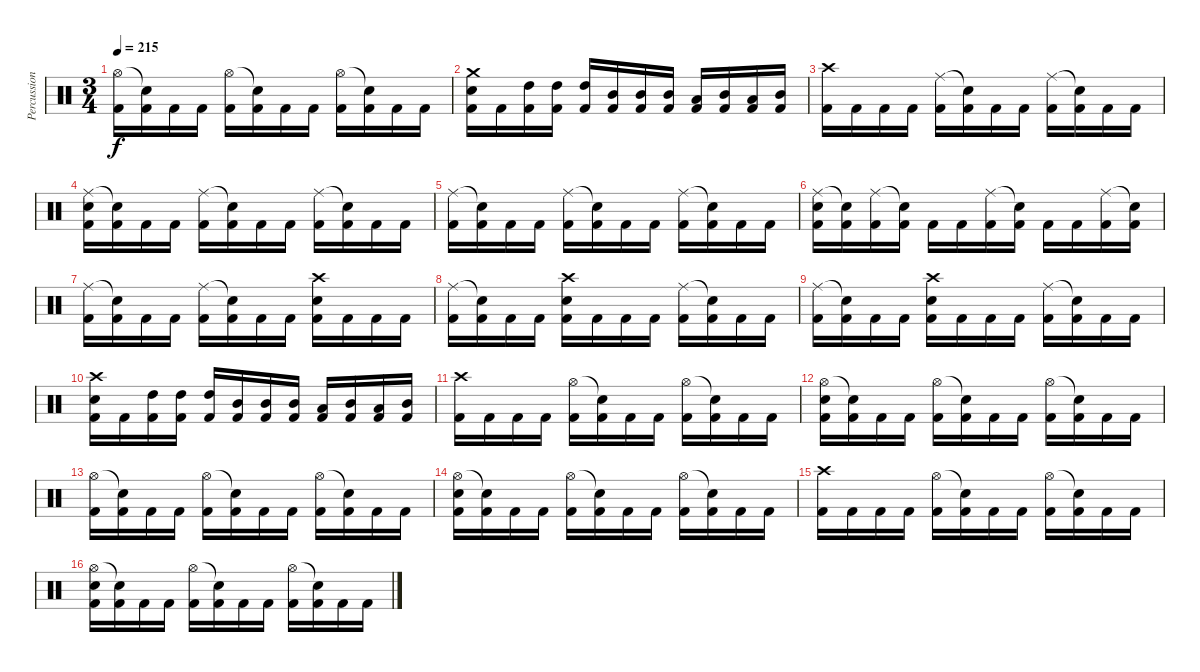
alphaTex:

\track ("Percussion" "Percussion") {instrument percussion}
\staff {score}
\articulation defaults
\ts (3 4)
\tempo 215
\clef neutral
\ks c
("Hi-Hat (open)" "Kick (hit) 2").16{dy f} ("Snare (hit)"{t} "Kick (hit) 2").16 "Kick (hit) 2".16 "Kick (hit) 2".16 ("Hi-Hat (open)" "Kick (hit) 2").16 ("Snare (hit)"{t} "Kick (hit) 2").16 "Kick (hit) 2".16 "Kick (hit) 2".16 ("Hi-Hat (open)" "Kick (hit) 2").16 ("Snare (hit)"{t} "Kick (hit) 2").16 "Kick (hit) 2".16 "Kick (hit) 2".16 |
("Crash medium (hit)" "Snare (hit) 2" "Kick (hit) 2").16 "Kick (hit) 2".16 ("High Tom (hit)" "Kick (hit) 2").16 ("High Tom (hit)" "Kick (hit) 2").16 ("High Tom (hit)" "Kick (hit) 2").16 ("Mid Tom (hit)" "Kick (hit) 2").16 ("Mid Tom (hit)" "Kick (hit) 2").16 ("Mid Tom (hit)" "Kick (hit) 2").16 ("Low Tom (hit)" "Kick (hit) 2").16 ("Mid Tom (hit)" "Kick (hit) 2").16 ("Low Tom (hit)" "Kick (hit) 2").16 ("Mid Tom (hit)" "Kick (hit) 2").16 |
("Crash high (hit)" "Kick (hit) 2").16 "Kick (hit) 2".16 "Kick (hit) 2".16 "Kick (hit) 2".16 ("Ride (middle)" "Kick (hit) 2").16 ("Snare (hit)"{t} "Kick (hit) 2").16 "Kick (hit) 2".16 "Kick (hit) 2".16 ("Ride (middle)" "Kick (hit) 2").16 ("Snare (hit)"{t} "Kick (hit) 2").16 "Kick (hit) 2".16 "Kick (hit) 2".16 |
("Ride (middle)" "Snare (hit) 2" "Kick (hit) 2").16 ("Snare (hit)"{t} "Kick (hit) 2").16 "Kick (hit) 2".16 "Kick (hit) 2".16 ("Ride (middle)" "Kick (hit) 2").16 ("Snare (hit)"{t} "Kick (hit) 2").16 "Kick (hit) 2".16 "Kick (hit) 2".16 ("Ride (middle)" "Kick (hit) 2").16 ("Snare (hit)"{t} "Kick (hit) 2").16 "Kick (hit) 2".16 "Kick (hit) 2".16 |
("Ride (middle)" "Kick (hit) 2").16 ("Snare (hit)"{t} "Kick (hit) 2").16 "Kick (hit) 2".16 "Kick (hit) 2".16 ("Ride (middle)" "Kick (hit) 2").16 ("Snare (hit)"{t} "Kick (hit) 2").16 "Kick (hit) 2".16 "Kick (hit) 2".16 ("Ride (middle)" "Kick (hit) 2").16 ("Snare (hit)"{t} "Kick (hit) 2").16 "Kick (hit) 2".16 "Kick (hit) 2".16 |
("Ride (middle)" "Snare (hit) 2" "Kick (hit) 2").16 ("Snare (hit)"{t} "Kick (hit) 2").16 ("Ride (middle)" "Kick (hit) 2").16 ("Snare (hit)"{t} "Kick (hit) 2").16 "Kick (hit) 2".16 "Kick (hit) 2".16 ("Ride (middle)" "Kick (hit) 2").16 ("Snare (hit)"{t} "Kick (hit) 2").16 "Kick (hit) 2".16 "Kick (hit) 2".16 ("Ride (middle)" "Kick (hit) 2").16 ("Snare (hit)"{t} "Kick (hit) 2").16 |
("Ride (middle)" "Kick (hit) 2").16 ("Snare (hit)"{t} "Kick (hit) 2").16 "Kick (hit) 2".16 "Kick (hit) 2".16 ("Ride (middle)" "Kick (hit) 2").16 ("Snare (hit)"{t} "Kick (hit) 2").16 "Kick (hit) 2".16 "Kick (hit) 2".16 ("Crash high (hit)" "Snare (hit) 2" "Kick (hit) 2").16 "Kick (hit) 2".16 "Kick (hit) 2".16 "Kick (hit) 2".16 |
("Ride (middle)" "Kick (hit) 2").16 ("Snare (hit)"{t} "Kick (hit) 2").16 "Kick (hit) 2".16 "Kick (hit) 2".16 ("Crash high (hit)" "Snare (hit) 2" "Kick (hit) 2").16 "Kick (hit) 2".16 "Kick (hit) 2".16 "Kick (hit) 2".16 ("Ride (middle)" "Kick (hit) 2").16 ("Snare (hit)"{t} "Kick (hit) 2").16 "Kick (hit) 2".16 "Kick (hit) 2".16 |
("Ride (middle)" "Kick (hit) 2").16 ("Snare (hit)"{t} "Kick (hit) 2").16 "Kick (hit) 2".16 "Kick (hit) 2".16 ("Crash high (hit)" "Snare (hit) 2" "Kick (hit) 2").16 "Kick (hit) 2".16 "Kick (hit) 2".16 "Kick (hit) 2".16 ("Ride (middle)" "Kick (hit) 2").16 ("Snare (hit)"{t} "Kick (hit) 2").16 "Kick (hit) 2".16 "Kick (hit) 2".16 |
("Crash high (hit)" "Snare (hit) 2" "Kick (hit) 2").16 "Kick (hit) 2".16 ("High Tom (hit)" "Kick (hit) 2").16 ("High Tom (hit)" "Kick (hit) 2").16 ("High Tom (hit)" "Kick (hit) 2").16 ("Mid Tom (hit)" "Kick (hit) 2").16 ("Mid Tom (hit)" "Kick (hit) 2").16 ("Mid Tom (hit)" "Kick (hit) 2").16 ("Low Tom (hit)" "Kick (hit) 2").16 ("Mid Tom (hit)" "Kick (hit) 2").16 ("Low Tom (hit)" "Kick (hit) 2").16 ("Mid Tom (hit)" "Kick (hit) 2").16 |
("Crash high (hit)" "Kick (hit) 2").16 "Kick (hit) 2".16 "Kick (hit) 2".16 "Kick (hit) 2".16 ("Hi-Hat (open)" "Kick (hit) 2").16 ("Snare (hit)"{t} "Kick (hit) 2").16 "Kick (hit) 2".16 "Kick (hit) 2".16 ("Hi-Hat (open)" "Kick (hit) 2").16 ("Snare (hit)"{t} "Kick (hit) 2").16 "Kick (hit) 2".16 "Kick (hit) 2".16 |
("Hi-Hat (open)" "Snare (hit) 2" "Kick (hit) 2").16 ("Snare (hit)"{t} "Kick (hit) 2").16 "Kick (hit) 2".16 "Kick (hit) 2".16 ("Hi-Hat (open)" "Kick (hit) 2").16 ("Snare (hit)"{t} "Kick (hit) 2").16 "Kick (hit) 2".16 "Kick (hit) 2".16 ("Hi-Hat (open)" "Kick (hit) 2").16 ("Snare (hit)"{t} "Kick (hit) 2").16 "Kick (hit) 2".16 "Kick (hit) 2".16 |
("Hi-Hat (open)" "Kick (hit) 2").16 ("Snare (hit)"{t} "Kick (hit) 2").16 "Kick (hit) 2".16 "Kick (hit) 2".16 ("Hi-Hat (open)" "Kick (hit) 2").16 ("Snare (hit)"{t} "Kick (hit) 2").16 "Kick (hit) 2".16 "Kick (hit) 2".16 ("Hi-Hat (open)" "Kick (hit) 2").16 ("Snare (hit)"{t} "Kick (hit) 2").16 "Kick (hit) 2".16 "Kick (hit) 2".16 |
("Hi-Hat (open)" "Snare (hit) 2" "Kick (hit) 2").16 ("Snare (hit)"{t} "Kick (hit) 2").16 "Kick (hit) 2".16 "Kick (hit) 2".16 ("Hi-Hat (open)" "Kick (hit) 2").16 ("Snare (hit)"{t} "Kick (hit) 2").16 "Kick (hit) 2".16 "Kick (hit) 2".16 ("Hi-Hat (open)" "Kick (hit) 2").16 ("Snare (hit)"{t} "Kick (hit) 2").16 "Kick (hit) 2".16 "Kick (hit) 2".16 |
("Crash high (hit)" "Kick (hit) 2").16 "Kick (hit) 2".16 "Kick (hit) 2".16 "Kick (hit) 2".16 ("Hi-Hat (open)" "Kick (hit) 2").16 ("Snare (hit)"{t} "Kick (hit) 2").16 "Kick (hit) 2".16 "Kick (hit) 2".16 ("Hi-Hat (open)" "Kick (hit) 2").16 ("Snare (hit)"{t} "Kick (hit) 2").16 "Kick (hit) 2".16 "Kick (hit) 2".16 |
("Hi-Hat (open)" "Snare (hit) 2" "Kick (hit) 2").16 ("Snare (hit)"{t} "Kick (hit) 2").16 "Kick (hit) 2".16 "Kick (hit) 2".16 ("Hi-Hat (open)" "Kick (hit) 2").16 ("Snare (hit)"{t} "Kick (hit) 2").16 "Kick (hit) 2".16 "Kick (hit) 2".16 ("Hi-Hat (open)" "Kick (hit) 2").16 ("Snare (hit)"{t} "Kick (hit) 2").16 "Kick (hit) 2".16 "Kick (hit) 2".16
